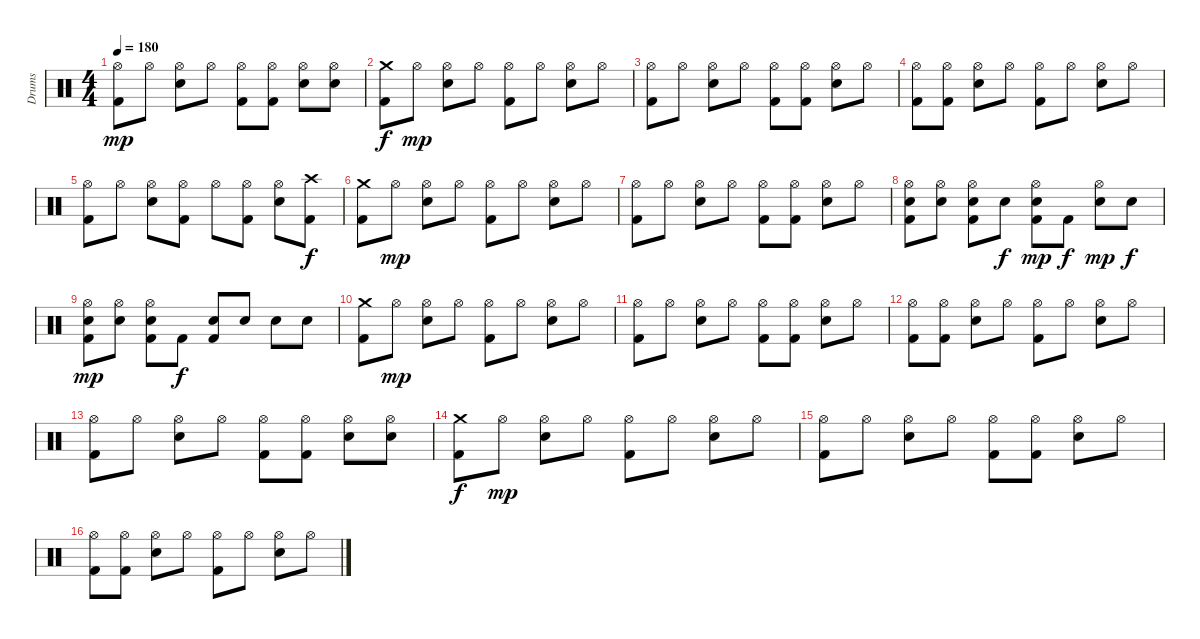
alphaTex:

\track ("Drums" "Drums") {instrument percussion}
\staff {score}
\articulation defaults
\ts (4 4)
\tempo 180
\clef neutral
\ks c
("Hi-Hat (open)" "Kick (hit) 2").8{dy mp} "Hi-Hat (open)".8 ("Hi-Hat (open)" "Snare (hit) 2").8 "Hi-Hat (open)".8 ("Hi-Hat (open)" "Kick (hit) 2").8 ("Hi-Hat (open)" "Kick (hit) 2").8 ("Hi-Hat (open)" "Snare (hit) 2").8 ("Hi-Hat (open)" "Snare (hit) 2").8 |
("Crash medium (hit)" "Kick (hit) 2").8{dy f} "Hi-Hat (open)".8{dy mp} ("Hi-Hat (open)" "Snare (hit) 2").8 "Hi-Hat (open)".8 ("Hi-Hat (open)" "Kick (hit) 2").8 "Hi-Hat (open)".8 ("Hi-Hat (open)" "Snare (hit) 2").8 "Hi-Hat (open)".8 |
("Hi-Hat (open)" "Kick (hit) 2").8 "Hi-Hat (open)".8 ("Hi-Hat (open)" "Snare (hit) 2").8 "Hi-Hat (open)".8 ("Hi-Hat (open)" "Kick (hit) 2").8 ("Hi-Hat (open)" "Kick (hit) 2").8 ("Hi-Hat (open)" "Snare (hit) 2").8 "Hi-Hat (open)".8 |
("Hi-Hat (open)" "Kick (hit) 2").8 ("Hi-Hat (open)" "Kick (hit) 2").8 ("Hi-Hat (open)" "Snare (hit) 2").8 "Hi-Hat (open)".8 ("Hi-Hat (open)" "Kick (hit) 2").8 "Hi-Hat (open)".8 ("Hi-Hat (open)" "Snare (hit) 2").8 "Hi-Hat (open)".8 |
("Hi-Hat (open)" "Kick (hit) 2").8 "Hi-Hat (open)".8 ("Hi-Hat (open)" "Snare (hit) 2").8 ("Hi-Hat (open)" "Kick (hit) 2").8 "Hi-Hat (open)".8 ("Hi-Hat (open)" "Kick (hit) 2").8 ("Hi-Hat (open)" "Snare (hit) 2").8 ("Crash high (hit)" "Kick (hit) 2").8{dy f} |
("Crash medium (hit)" "Kick (hit) 2").8 "Hi-Hat (open)".8{dy mp} ("Hi-Hat (open)" "Snare (hit) 2").8 "Hi-Hat (open)".8 ("Hi-Hat (open)" "Kick (hit) 2").8 "Hi-Hat (open)".8 ("Hi-Hat (open)" "Snare (hit) 2").8 "Hi-Hat (open)".8 |
("Hi-Hat (open)" "Kick (hit) 2").8 "Hi-Hat (open)".8 ("Hi-Hat (open)" "Snare (hit) 2").8 "Hi-Hat (open)".8 ("Hi-Hat (open)" "Kick (hit) 2").8 ("Hi-Hat (open)" "Kick (hit) 2").8 ("Hi-Hat (open)" "Snare (hit) 2").8 "Hi-Hat (open)".8 |
("Hi-Hat (open)" "Snare (hit) 2" "Kick (hit) 2").8 ("Hi-Hat (open)" "Snare (hit) 2").8 ("Hi-Hat (open)" "Snare (hit) 2" "Kick (hit) 2").8 "Snare (hit) 2".8{dy f} ("Hi-Hat (open)" "Snare (hit) 2" "Kick (hit) 2").8{dy mp} "Kick (hit) 2".8{dy f} ("Hi-Hat (open)" "Snare (hit) 2").8{dy mp} "Snare (hit) 2".8{dy f} |
("Hi-Hat (open)" "Snare (hit) 2" "Kick (hit) 2").8{dy mp} ("Hi-Hat (open)" "Snare (hit) 2").8 ("Hi-Hat (open)" "Snare (hit) 2" "Kick (hit) 2").8 "Kick (hit) 2".8{dy f} ("Snare (hit) 2" "Kick (hit) 2").8 "Snare (hit) 2".8 "Snare (hit) 2".8 "Snare (hit) 2".8 |
("Crash medium (hit)" "Kick (hit) 2").8 "Hi-Hat (open)".8{dy mp} ("Hi-Hat (open)" "Snare (hit) 2").8 "Hi-Hat (open)".8 ("Hi-Hat (open)" "Kick (hit) 2").8 "Hi-Hat (open)".8 ("Hi-Hat (open)" "Snare (hit) 2").8 "Hi-Hat (open)".8 |
("Hi-Hat (open)" "Kick (hit) 2").8 "Hi-Hat (open)".8 ("Hi-Hat (open)" "Snare (hit) 2").8 "Hi-Hat (open)".8 ("Hi-Hat (open)" "Kick (hit) 2").8 ("Hi-Hat (open)" "Kick (hit) 2").8 ("Hi-Hat (open)" "Snare (hit) 2").8 "Hi-Hat (open)".8 |
("Hi-Hat (open)" "Kick (hit) 2").8 ("Hi-Hat (open)" "Kick (hit) 2").8 ("Hi-Hat (open)" "Snare (hit) 2").8 "Hi-Hat (open)".8 ("Hi-Hat (open)" "Kick (hit) 2").8 "Hi-Hat (open)".8 ("Hi-Hat (open)" "Snare (hit) 2").8 "Hi-Hat (open)".8 |
("Hi-Hat (open)" "Kick (hit) 2").8 "Hi-Hat (open)".8 ("Hi-Hat (open)" "Snare (hit) 2").8 "Hi-Hat (open)".8 ("Hi-Hat (open)" "Kick (hit) 2").8 ("Hi-Hat (open)" "Kick (hit) 2").8 ("Hi-Hat (open)" "Snare (hit) 2").8 ("Hi-Hat (open)" "Snare (hit) 2").8 |
("Crash medium (hit)" "Kick (hit) 2").8{dy f} "Hi-Hat (open)".8{dy mp} ("Hi-Hat (open)" "Snare (hit) 2").8 "Hi-Hat (open)".8 ("Hi-Hat (open)" "Kick (hit) 2").8 "Hi-Hat (open)".8 ("Hi-Hat (open)" "Snare (hit) 2").8 "Hi-Hat (open)".8 |
("Hi-Hat (open)" "Kick (hit) 2").8 "Hi-Hat (open)".8 ("Hi-Hat (open)" "Snare (hit) 2").8 "Hi-Hat (open)".8 ("Hi-Hat (open)" "Kick (hit) 2").8 ("Hi-Hat (open)" "Kick (hit) 2").8 ("Hi-Hat (open)" "Snare (hit) 2").8 "Hi-Hat (open)".8 |
("Hi-Hat (open)" "Kick (hit) 2").8 ("Hi-Hat (open)" "Kick (hit) 2").8 ("Hi-Hat (open)" "Snare (hit) 2").8 "Hi-Hat (open)".8 ("Hi-Hat (open)" "Kick (hit) 2").8 "Hi-Hat (open)".8 ("Hi-Hat (open)" "Snare (hit) 2").8 "Hi-Hat (open)".8
